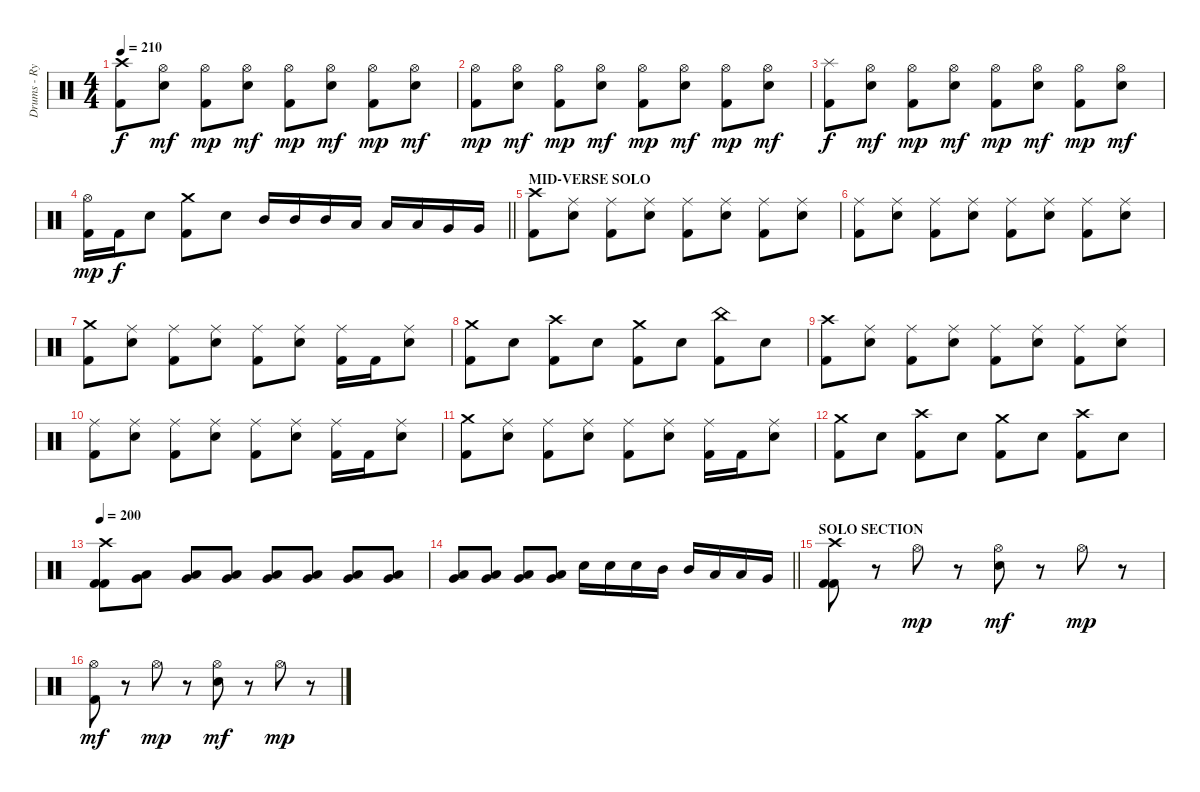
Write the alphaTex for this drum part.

\track ("Drums - Ryan Bates" "Drums - Ry") {instrument percussion}
\staff {score}
\articulation defaults
\ts (4 4)
\tempo 210
\clef neutral
\ks c
("Crash high (hit)" "Kick (hit) 2").8{dy f} ("Hi-Hat (open)" "Snare (hit) 2").8{dy mf} ("Hi-Hat (open)" "Kick (hit) 2").8{dy mp} ("Hi-Hat (open)" "Snare (hit) 2").8{dy mf} ("Hi-Hat (open)" "Kick (hit) 2").8{dy mp} ("Hi-Hat (open)" "Snare (hit) 2").8{dy mf} ("Hi-Hat (open)" "Kick (hit) 2").8{dy mp} ("Hi-Hat (open)" "Snare (hit) 2").8{dy mf} |
("Hi-Hat (open)" "Kick (hit) 2").8{dy mp} ("Hi-Hat (open)" "Snare (hit) 2").8{dy mf} ("Hi-Hat (open)" "Kick (hit) 2").8{dy mp} ("Hi-Hat (open)" "Snare (hit) 2").8{dy mf} ("Hi-Hat (open)" "Kick (hit) 2").8{dy mp} ("Hi-Hat (open)" "Snare (hit) 2").8{dy mf} ("Hi-Hat (open)" "Kick (hit) 2").8{dy mp} ("Hi-Hat (open)" "Snare (hit) 2").8{dy mf} |
("Splash (hit)" "Kick (hit) 2").8{dy f} ("Hi-Hat (open)" "Snare (hit) 2").8{dy mf} ("Hi-Hat (open)" "Kick (hit) 2").8{dy mp} ("Hi-Hat (open)" "Snare (hit) 2").8{dy mf} ("Hi-Hat (open)" "Kick (hit) 2").8{dy mp} ("Hi-Hat (open)" "Snare (hit) 2").8{dy mf} ("Hi-Hat (open)" "Kick (hit) 2").8{dy mp} ("Hi-Hat (open)" "Snare (hit) 2").8{dy mf} |
\barLineRight lightlight
("Hi-Hat (open)" "Kick (hit) 2").16{dy mp} "Kick (hit) 2".16{dy f} "Snare (hit) 2".8 ("Crash medium (hit)" "Kick (hit) 2").8 "Snare (hit) 2".8 "Mid Tom (hit)".16 "Mid Tom (hit)".16 "Mid Tom (hit)".16 "Low Tom (hit)".16 "Low Tom (hit)".16 "Low Tom (hit)".16 "Very Low Tom (hit)".16 "Very Low Tom (hit)".16 |
\section ("" "MID-VERSE SOLO")
("Crash high (hit)" "Kick (hit) 2").8 ("Ride (middle)" "Snare (hit) 2").8 ("Ride (middle)" "Kick (hit) 2").8 ("Ride (middle)" "Snare (hit) 2").8 ("Ride (middle)" "Kick (hit) 2").8 ("Ride (middle)" "Snare (hit) 2").8 ("Ride (middle)" "Kick (hit) 2").8 ("Ride (middle)" "Snare (hit) 2").8 |
("Ride (middle)" "Kick (hit) 2").8 ("Ride (middle)" "Snare (hit) 2").8 ("Ride (middle)" "Kick (hit) 2").8 ("Ride (middle)" "Snare (hit) 2").8 ("Ride (middle)" "Kick (hit) 2").8 ("Ride (middle)" "Snare (hit) 2").8 ("Ride (middle)" "Kick (hit) 2").8 ("Ride (middle)" "Snare (hit) 2").8 |
("Crash medium (hit)" "Kick (hit) 2").8 ("Ride (middle)" "Snare (hit) 2").8 ("Ride (middle)" "Kick (hit) 2").8 ("Ride (middle)" "Snare (hit) 2").8 ("Ride (middle)" "Kick (hit) 2").8 ("Ride (middle)" "Snare (hit) 2").8 ("Ride (middle)" "Kick (hit) 2").16 "Kick (hit) 2".16 ("Ride (middle)" "Snare (hit) 2").8 |
("Crash medium (hit)" "Kick (hit) 2").8 "Snare (hit) 2".8 ("Crash high (hit)" "Kick (hit) 2").8 "Snare (hit) 2".8 ("Crash medium (hit)" "Kick (hit) 2").8 "Snare (hit) 2".8 ("China (hit)" "Kick (hit) 2").8 "Snare (hit) 2".8 |
("Crash high (hit)" "Kick (hit) 2").8 ("Ride (middle)" "Snare (hit) 2").8 ("Ride (middle)" "Kick (hit) 2").8 ("Ride (middle)" "Snare (hit) 2").8 ("Ride (middle)" "Kick (hit) 2").8 ("Ride (middle)" "Snare (hit) 2").8 ("Ride (middle)" "Kick (hit) 2").8 ("Ride (middle)" "Snare (hit) 2").8 |
("Ride (middle)" "Kick (hit) 2").8 ("Ride (middle)" "Snare (hit) 2").8 ("Ride (middle)" "Kick (hit) 2").8 ("Ride (middle)" "Snare (hit) 2").8 ("Ride (middle)" "Kick (hit) 2").8 ("Ride (middle)" "Snare (hit) 2").8 ("Ride (middle)" "Kick (hit) 2").16 "Kick (hit) 2".16 ("Ride (middle)" "Snare (hit) 2").8 |
("Crash medium (hit)" "Kick (hit) 2").8 ("Ride (middle)" "Snare (hit) 2").8 ("Ride (middle)" "Kick (hit) 2").8 ("Ride (middle)" "Snare (hit) 2").8 ("Ride (middle)" "Kick (hit) 2").8 ("Ride (middle)" "Snare (hit) 2").8 ("Ride (middle)" "Kick (hit) 2").16 "Kick (hit) 2".16 ("Ride (middle)" "Snare (hit) 2").8 |
("Crash medium (hit)" "Kick (hit) 2").8 "Snare (hit) 2".8 ("Crash high (hit)" "Kick (hit) 2").8 "Snare (hit) 2".8 ("Crash medium (hit)" "Kick (hit) 2").8 "Snare (hit) 2".8 ("Crash high (hit)" "Kick (hit) 2").8 "Snare (hit) 2".8 |
\tempo 200
("Crash high (hit)" "Kick (hit) 2" "Kick (hit) 2").8 ("Low Tom (hit)" "Very Low Tom (hit)").8 ("Low Tom (hit)" "Very Low Tom (hit)").8 ("Low Tom (hit)" "Very Low Tom (hit)").8 ("Low Tom (hit)" "Very Low Tom (hit)").8 ("Low Tom (hit)" "Very Low Tom (hit)").8 ("Low Tom (hit)" "Very Low Tom (hit)").8 ("Low Tom (hit)" "Very Low Tom (hit)").8 |
\barLineRight lightlight
("Low Tom (hit)" "Very Low Tom (hit)").8 ("Low Tom (hit)" "Very Low Tom (hit)").8 ("Low Tom (hit)" "Very Low Tom (hit)").8 ("Low Tom (hit)" "Very Low Tom (hit)").8 "Snare (hit) 2".16 "Snare (hit) 2".16 "Snare (hit) 2".16 "Mid Tom (hit)".16 "Mid Tom (hit)".16 "Low Tom (hit)".16 "Low Tom (hit)".16 "Very Low Tom (hit)".16 |
\section ("" "SOLO SECTION")
("Crash high (hit)" "Kick (hit) 2" "Kick (hit) 2").8 r.8 "Hi-Hat (open)".8{dy mp} r.8 ("Hi-Hat (open)" "Snare (hit) 2").8{dy mf} r.8 "Hi-Hat (open)".8{dy mp} r.8 |
("Hi-Hat (open)" "Kick (hit) 2").8{dy mf} r.8 "Hi-Hat (open)".8{dy mp} r.8 ("Hi-Hat (open)" "Snare (hit) 2").8{dy mf} r.8 "Hi-Hat (open)".8{dy mp} r.8
